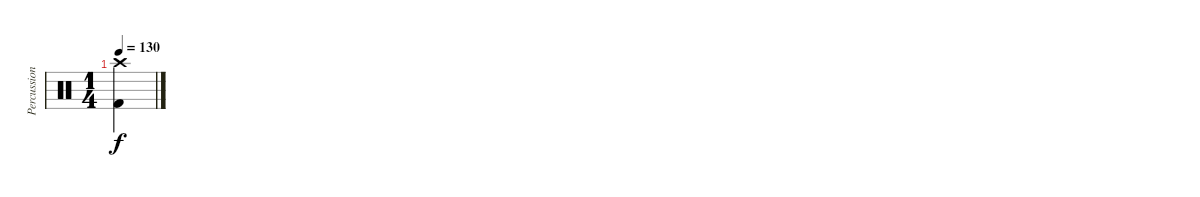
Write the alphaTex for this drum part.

\track ("Percussion" "Percussion") {instrument percussion}
\staff {score}
\articulation defaults
\ts (1 4)
\tempo 130
\clef neutral
\ks c
("Crash high (hit)" "Kick (hit) 2").4{dy f}
